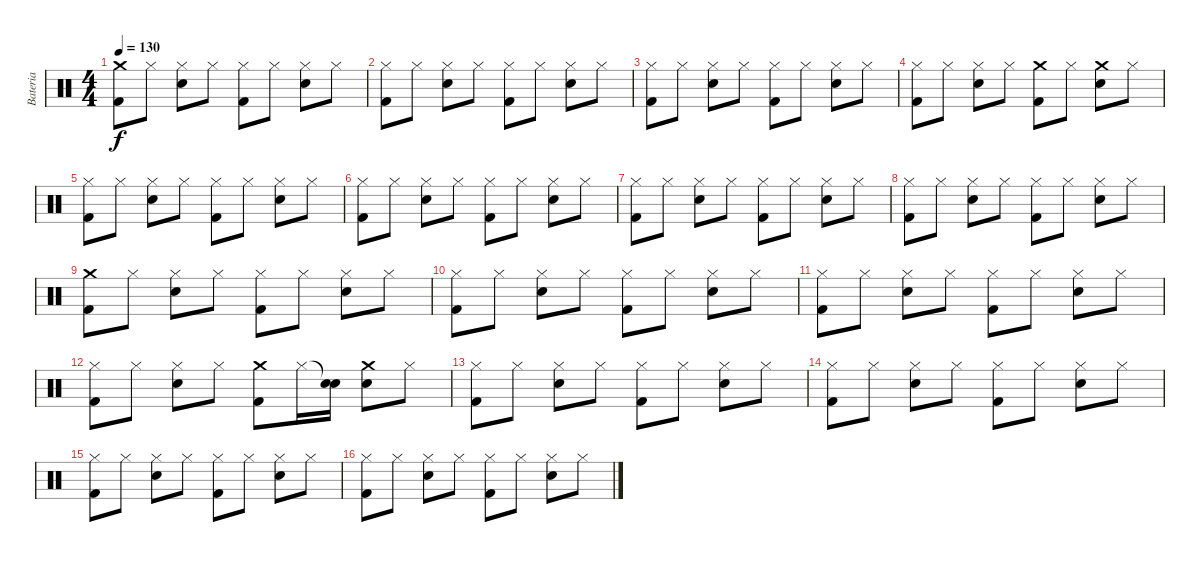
\track ("Bateria" "Bateria") {instrument percussion}
\staff {score}
\articulation defaults
\ts (4 4)
\tempo 130
\clef neutral
\ks c
("Crash medium (hit)" "Kick (hit) 2").8{dy f} "Hi-Hat (closed)".8 ("Hi-Hat (closed)" "Electric Snare (hit)").8 "Hi-Hat (closed)".8 ("Hi-Hat (closed)" "Kick (hit) 2").8 "Hi-Hat (closed)".8 ("Hi-Hat (closed)" "Electric Snare (hit)").8 "Hi-Hat (closed)".8 |
("Hi-Hat (closed)" "Kick (hit) 2").8 "Hi-Hat (closed)".8 ("Hi-Hat (closed)" "Electric Snare (hit)").8 "Hi-Hat (closed)".8 ("Hi-Hat (closed)" "Kick (hit) 2").8 "Hi-Hat (closed)".8 ("Hi-Hat (closed)" "Electric Snare (hit)").8 "Hi-Hat (closed)".8 |
("Hi-Hat (closed)" "Kick (hit) 2").8 "Hi-Hat (closed)".8 ("Hi-Hat (closed)" "Electric Snare (hit)").8 "Hi-Hat (closed)".8 ("Hi-Hat (closed)" "Kick (hit) 2").8 "Hi-Hat (closed)".8 ("Hi-Hat (closed)" "Electric Snare (hit)").8 "Hi-Hat (closed)".8 |
("Hi-Hat (closed)" "Kick (hit) 2").8 "Hi-Hat (closed)".8 ("Hi-Hat (closed)" "Electric Snare (hit)").8 "Hi-Hat (closed)".8 ("Crash medium (hit)" "Kick (hit) 2").8 "Hi-Hat (closed)".8 ("Crash medium (hit)" "Electric Snare (hit)").8 "Hi-Hat (closed)".8 |
("Hi-Hat (closed)" "Kick (hit) 2").8 "Hi-Hat (closed)".8 ("Hi-Hat (closed)" "Electric Snare (hit)").8 "Hi-Hat (closed)".8 ("Hi-Hat (closed)" "Kick (hit) 2").8 "Hi-Hat (closed)".8 ("Hi-Hat (closed)" "Electric Snare (hit)").8 "Hi-Hat (closed)".8 |
("Hi-Hat (closed)" "Kick (hit) 2").8 "Hi-Hat (closed)".8 ("Hi-Hat (closed)" "Electric Snare (hit)").8 "Hi-Hat (closed)".8 ("Hi-Hat (closed)" "Kick (hit) 2").8 "Hi-Hat (closed)".8 ("Hi-Hat (closed)" "Electric Snare (hit)").8 "Hi-Hat (closed)".8 |
("Hi-Hat (closed)" "Kick (hit) 2").8 "Hi-Hat (closed)".8 ("Hi-Hat (closed)" "Electric Snare (hit)").8 "Hi-Hat (closed)".8 ("Hi-Hat (closed)" "Kick (hit) 2").8 "Hi-Hat (closed)".8 ("Hi-Hat (closed)" "Electric Snare (hit)").8 "Hi-Hat (closed)".8 |
("Hi-Hat (closed)" "Kick (hit) 2").8 "Hi-Hat (closed)".8 ("Hi-Hat (closed)" "Electric Snare (hit)").8 "Hi-Hat (closed)".8 ("Hi-Hat (closed)" "Kick (hit) 2").8 "Hi-Hat (closed)".8 ("Hi-Hat (closed)" "Electric Snare (hit)").8 "Hi-Hat (closed)".8 |
("Crash medium (hit)" "Kick (hit) 2").8 "Hi-Hat (closed)".8 ("Hi-Hat (closed)" "Electric Snare (hit)").8 "Hi-Hat (closed)".8 ("Hi-Hat (closed)" "Kick (hit) 2").8 "Hi-Hat (closed)".8 ("Hi-Hat (closed)" "Electric Snare (hit)").8 "Hi-Hat (closed)".8 |
("Hi-Hat (closed)" "Kick (hit) 2").8 "Hi-Hat (closed)".8 ("Hi-Hat (closed)" "Electric Snare (hit)").8 "Hi-Hat (closed)".8 ("Hi-Hat (closed)" "Kick (hit) 2").8 "Hi-Hat (closed)".8 ("Hi-Hat (closed)" "Electric Snare (hit)").8 "Hi-Hat (closed)".8 |
("Hi-Hat (closed)" "Kick (hit) 2").8 "Hi-Hat (closed)".8 ("Hi-Hat (closed)" "Electric Snare (hit)").8 "Hi-Hat (closed)".8 ("Hi-Hat (closed)" "Kick (hit) 2").8 "Hi-Hat (closed)".8 ("Hi-Hat (closed)" "Electric Snare (hit)").8 "Hi-Hat (closed)".8 |
("Hi-Hat (closed)" "Kick (hit) 2").8 "Hi-Hat (closed)".8 ("Hi-Hat (closed)" "Electric Snare (hit)").8 "Hi-Hat (closed)".8 ("Crash medium (hit)" "Kick (hit) 2").8 "Hi-Hat (closed)".16 ("Snare (hit)"{t} "Electric Snare (hit)").16 ("Crash medium (hit)" "Electric Snare (hit)").8 "Hi-Hat (closed)".8 |
("Hi-Hat (closed)" "Kick (hit) 2").8 "Hi-Hat (closed)".8 ("Hi-Hat (closed)" "Electric Snare (hit)").8 "Hi-Hat (closed)".8 ("Hi-Hat (closed)" "Kick (hit) 2").8 "Hi-Hat (closed)".8 ("Hi-Hat (closed)" "Electric Snare (hit)").8 "Hi-Hat (closed)".8 |
("Hi-Hat (closed)" "Kick (hit) 2").8 "Hi-Hat (closed)".8 ("Hi-Hat (closed)" "Electric Snare (hit)").8 "Hi-Hat (closed)".8 ("Hi-Hat (closed)" "Kick (hit) 2").8 "Hi-Hat (closed)".8 ("Hi-Hat (closed)" "Electric Snare (hit)").8 "Hi-Hat (closed)".8 |
("Hi-Hat (closed)" "Kick (hit) 2").8 "Hi-Hat (closed)".8 ("Hi-Hat (closed)" "Electric Snare (hit)").8 "Hi-Hat (closed)".8 ("Hi-Hat (closed)" "Kick (hit) 2").8 "Hi-Hat (closed)".8 ("Hi-Hat (closed)" "Electric Snare (hit)").8 "Hi-Hat (closed)".8 |
("Hi-Hat (closed)" "Kick (hit) 2").8 "Hi-Hat (closed)".8 ("Hi-Hat (closed)" "Electric Snare (hit)").8 "Hi-Hat (closed)".8 ("Hi-Hat (closed)" "Kick (hit) 2").8 "Hi-Hat (closed)".8 ("Hi-Hat (closed)" "Electric Snare (hit)").8 "Hi-Hat (closed)".8
